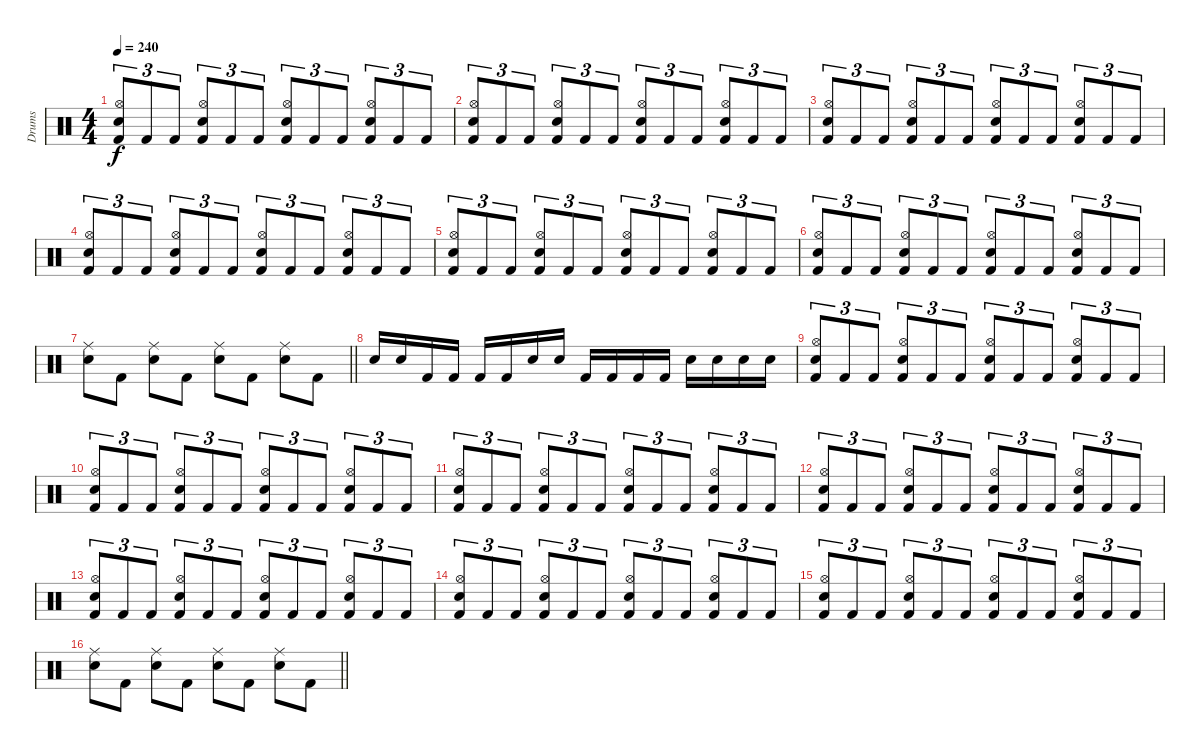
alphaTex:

\track ("Drums" "Drums") {instrument percussion}
\staff {score}
\articulation defaults
\ts (4 4)
\tempo 240
\clef neutral
\ks c
("Snare (hit) 2" "Hi-Hat (open)" "Kick (hit) 2").8{tu (3 2) dy f} "Kick (hit) 2".8{tu (3 2)} "Kick (hit) 2".8{tu (3 2)} ("Snare (hit) 2" "Hi-Hat (open)" "Kick (hit) 2").8{tu (3 2)} "Kick (hit) 2".8{tu (3 2)} "Kick (hit) 2".8{tu (3 2)} ("Snare (hit) 2" "Hi-Hat (open)" "Kick (hit) 2").8{tu (3 2)} "Kick (hit) 2".8{tu (3 2)} "Kick (hit) 2".8{tu (3 2)} ("Snare (hit) 2" "Hi-Hat (open)" "Kick (hit) 2").8{tu (3 2)} "Kick (hit) 2".8{tu (3 2)} "Kick (hit) 2".8{tu (3 2)} |
("Snare (hit) 2" "Hi-Hat (open)" "Kick (hit) 2").8{tu (3 2)} "Kick (hit) 2".8{tu (3 2)} "Kick (hit) 2".8{tu (3 2)} ("Snare (hit) 2" "Hi-Hat (open)" "Kick (hit) 2").8{tu (3 2)} "Kick (hit) 2".8{tu (3 2)} "Kick (hit) 2".8{tu (3 2)} ("Snare (hit) 2" "Hi-Hat (open)" "Kick (hit) 2").8{tu (3 2)} "Kick (hit) 2".8{tu (3 2)} "Kick (hit) 2".8{tu (3 2)} ("Snare (hit) 2" "Hi-Hat (open)" "Kick (hit) 2").8{tu (3 2)} "Kick (hit) 2".8{tu (3 2)} "Kick (hit) 2".8{tu (3 2)} |
("Snare (hit) 2" "Hi-Hat (open)" "Kick (hit) 2").8{tu (3 2)} "Kick (hit) 2".8{tu (3 2)} "Kick (hit) 2".8{tu (3 2)} ("Snare (hit) 2" "Hi-Hat (open)" "Kick (hit) 2").8{tu (3 2)} "Kick (hit) 2".8{tu (3 2)} "Kick (hit) 2".8{tu (3 2)} ("Snare (hit) 2" "Hi-Hat (open)" "Kick (hit) 2").8{tu (3 2)} "Kick (hit) 2".8{tu (3 2)} "Kick (hit) 2".8{tu (3 2)} ("Snare (hit) 2" "Hi-Hat (open)" "Kick (hit) 2").8{tu (3 2)} "Kick (hit) 2".8{tu (3 2)} "Kick (hit) 2".8{tu (3 2)} |
("Snare (hit) 2" "Hi-Hat (open)" "Kick (hit) 2").8{tu (3 2)} "Kick (hit) 2".8{tu (3 2)} "Kick (hit) 2".8{tu (3 2)} ("Snare (hit) 2" "Hi-Hat (open)" "Kick (hit) 2").8{tu (3 2)} "Kick (hit) 2".8{tu (3 2)} "Kick (hit) 2".8{tu (3 2)} ("Snare (hit) 2" "Hi-Hat (open)" "Kick (hit) 2").8{tu (3 2)} "Kick (hit) 2".8{tu (3 2)} "Kick (hit) 2".8{tu (3 2)} ("Snare (hit) 2" "Hi-Hat (open)" "Kick (hit) 2").8{tu (3 2)} "Kick (hit) 2".8{tu (3 2)} "Kick (hit) 2".8{tu (3 2)} |
("Snare (hit) 2" "Hi-Hat (open)" "Kick (hit) 2").8{tu (3 2)} "Kick (hit) 2".8{tu (3 2)} "Kick (hit) 2".8{tu (3 2)} ("Snare (hit) 2" "Hi-Hat (open)" "Kick (hit) 2").8{tu (3 2)} "Kick (hit) 2".8{tu (3 2)} "Kick (hit) 2".8{tu (3 2)} ("Snare (hit) 2" "Hi-Hat (open)" "Kick (hit) 2").8{tu (3 2)} "Kick (hit) 2".8{tu (3 2)} "Kick (hit) 2".8{tu (3 2)} ("Snare (hit) 2" "Hi-Hat (open)" "Kick (hit) 2").8{tu (3 2)} "Kick (hit) 2".8{tu (3 2)} "Kick (hit) 2".8{tu (3 2)} |
("Snare (hit) 2" "Hi-Hat (open)" "Kick (hit) 2").8{tu (3 2)} "Kick (hit) 2".8{tu (3 2)} "Kick (hit) 2".8{tu (3 2)} ("Snare (hit) 2" "Hi-Hat (open)" "Kick (hit) 2").8{tu (3 2)} "Kick (hit) 2".8{tu (3 2)} "Kick (hit) 2".8{tu (3 2)} ("Snare (hit) 2" "Hi-Hat (open)" "Kick (hit) 2").8{tu (3 2)} "Kick (hit) 2".8{tu (3 2)} "Kick (hit) 2".8{tu (3 2)} ("Snare (hit) 2" "Hi-Hat (open)" "Kick (hit) 2").8{tu (3 2)} "Kick (hit) 2".8{tu (3 2)} "Kick (hit) 2".8{tu (3 2)} |
\barLineRight lightlight
("Snare (hit) 2" "Ride (middle)").8 "Kick (hit) 2".8 ("Snare (hit) 2" "Ride (middle)").8 "Kick (hit) 2".8 ("Snare (hit) 2" "Ride (middle)").8 "Kick (hit) 2".8 ("Snare (hit) 2" "Ride (middle)").8 "Kick (hit) 2".8 |
"Snare (hit) 2".16 "Snare (hit) 2".16 "Kick (hit) 2".16 "Kick (hit) 2".16 "Kick (hit) 2".16 "Kick (hit) 2".16 "Snare (hit) 2".16 "Snare (hit) 2".16 "Kick (hit) 2".16 "Kick (hit) 2".16 "Kick (hit) 2".16 "Kick (hit) 2".16 "Snare (hit) 2".16 "Snare (hit) 2".16 "Snare (hit) 2".16 "Snare (hit) 2".16 |
("Snare (hit) 2" "Hi-Hat (open)" "Kick (hit) 2").8{tu (3 2)} "Kick (hit) 2".8{tu (3 2)} "Kick (hit) 2".8{tu (3 2)} ("Snare (hit) 2" "Hi-Hat (open)" "Kick (hit) 2").8{tu (3 2)} "Kick (hit) 2".8{tu (3 2)} "Kick (hit) 2".8{tu (3 2)} ("Snare (hit) 2" "Hi-Hat (open)" "Kick (hit) 2").8{tu (3 2)} "Kick (hit) 2".8{tu (3 2)} "Kick (hit) 2".8{tu (3 2)} ("Snare (hit) 2" "Hi-Hat (open)" "Kick (hit) 2").8{tu (3 2)} "Kick (hit) 2".8{tu (3 2)} "Kick (hit) 2".8{tu (3 2)} |
("Snare (hit) 2" "Hi-Hat (open)" "Kick (hit) 2").8{tu (3 2)} "Kick (hit) 2".8{tu (3 2)} "Kick (hit) 2".8{tu (3 2)} ("Snare (hit) 2" "Hi-Hat (open)" "Kick (hit) 2").8{tu (3 2)} "Kick (hit) 2".8{tu (3 2)} "Kick (hit) 2".8{tu (3 2)} ("Snare (hit) 2" "Hi-Hat (open)" "Kick (hit) 2").8{tu (3 2)} "Kick (hit) 2".8{tu (3 2)} "Kick (hit) 2".8{tu (3 2)} ("Snare (hit) 2" "Hi-Hat (open)" "Kick (hit) 2").8{tu (3 2)} "Kick (hit) 2".8{tu (3 2)} "Kick (hit) 2".8{tu (3 2)} |
("Snare (hit) 2" "Hi-Hat (open)" "Kick (hit) 2").8{tu (3 2)} "Kick (hit) 2".8{tu (3 2)} "Kick (hit) 2".8{tu (3 2)} ("Snare (hit) 2" "Hi-Hat (open)" "Kick (hit) 2").8{tu (3 2)} "Kick (hit) 2".8{tu (3 2)} "Kick (hit) 2".8{tu (3 2)} ("Snare (hit) 2" "Hi-Hat (open)" "Kick (hit) 2").8{tu (3 2)} "Kick (hit) 2".8{tu (3 2)} "Kick (hit) 2".8{tu (3 2)} ("Snare (hit) 2" "Hi-Hat (open)" "Kick (hit) 2").8{tu (3 2)} "Kick (hit) 2".8{tu (3 2)} "Kick (hit) 2".8{tu (3 2)} |
("Snare (hit) 2" "Hi-Hat (open)" "Kick (hit) 2").8{tu (3 2)} "Kick (hit) 2".8{tu (3 2)} "Kick (hit) 2".8{tu (3 2)} ("Snare (hit) 2" "Hi-Hat (open)" "Kick (hit) 2").8{tu (3 2)} "Kick (hit) 2".8{tu (3 2)} "Kick (hit) 2".8{tu (3 2)} ("Snare (hit) 2" "Hi-Hat (open)" "Kick (hit) 2").8{tu (3 2)} "Kick (hit) 2".8{tu (3 2)} "Kick (hit) 2".8{tu (3 2)} ("Snare (hit) 2" "Hi-Hat (open)" "Kick (hit) 2").8{tu (3 2)} "Kick (hit) 2".8{tu (3 2)} "Kick (hit) 2".8{tu (3 2)} |
("Snare (hit) 2" "Hi-Hat (open)" "Kick (hit) 2").8{tu (3 2)} "Kick (hit) 2".8{tu (3 2)} "Kick (hit) 2".8{tu (3 2)} ("Snare (hit) 2" "Hi-Hat (open)" "Kick (hit) 2").8{tu (3 2)} "Kick (hit) 2".8{tu (3 2)} "Kick (hit) 2".8{tu (3 2)} ("Snare (hit) 2" "Hi-Hat (open)" "Kick (hit) 2").8{tu (3 2)} "Kick (hit) 2".8{tu (3 2)} "Kick (hit) 2".8{tu (3 2)} ("Snare (hit) 2" "Hi-Hat (open)" "Kick (hit) 2").8{tu (3 2)} "Kick (hit) 2".8{tu (3 2)} "Kick (hit) 2".8{tu (3 2)} |
("Snare (hit) 2" "Hi-Hat (open)" "Kick (hit) 2").8{tu (3 2)} "Kick (hit) 2".8{tu (3 2)} "Kick (hit) 2".8{tu (3 2)} ("Snare (hit) 2" "Hi-Hat (open)" "Kick (hit) 2").8{tu (3 2)} "Kick (hit) 2".8{tu (3 2)} "Kick (hit) 2".8{tu (3 2)} ("Snare (hit) 2" "Hi-Hat (open)" "Kick (hit) 2").8{tu (3 2)} "Kick (hit) 2".8{tu (3 2)} "Kick (hit) 2".8{tu (3 2)} ("Snare (hit) 2" "Hi-Hat (open)" "Kick (hit) 2").8{tu (3 2)} "Kick (hit) 2".8{tu (3 2)} "Kick (hit) 2".8{tu (3 2)} |
("Snare (hit) 2" "Hi-Hat (open)" "Kick (hit) 2").8{tu (3 2)} "Kick (hit) 2".8{tu (3 2)} "Kick (hit) 2".8{tu (3 2)} ("Snare (hit) 2" "Hi-Hat (open)" "Kick (hit) 2").8{tu (3 2)} "Kick (hit) 2".8{tu (3 2)} "Kick (hit) 2".8{tu (3 2)} ("Snare (hit) 2" "Hi-Hat (open)" "Kick (hit) 2").8{tu (3 2)} "Kick (hit) 2".8{tu (3 2)} "Kick (hit) 2".8{tu (3 2)} ("Snare (hit) 2" "Hi-Hat (open)" "Kick (hit) 2").8{tu (3 2)} "Kick (hit) 2".8{tu (3 2)} "Kick (hit) 2".8{tu (3 2)} |
\barLineRight lightlight
("Snare (hit) 2" "Ride (middle)").8 "Kick (hit) 2".8 ("Snare (hit) 2" "Ride (middle)").8 "Kick (hit) 2".8 ("Snare (hit) 2" "Ride (middle)").8 "Kick (hit) 2".8 ("Snare (hit) 2" "Ride (middle)").8 "Kick (hit) 2".8
